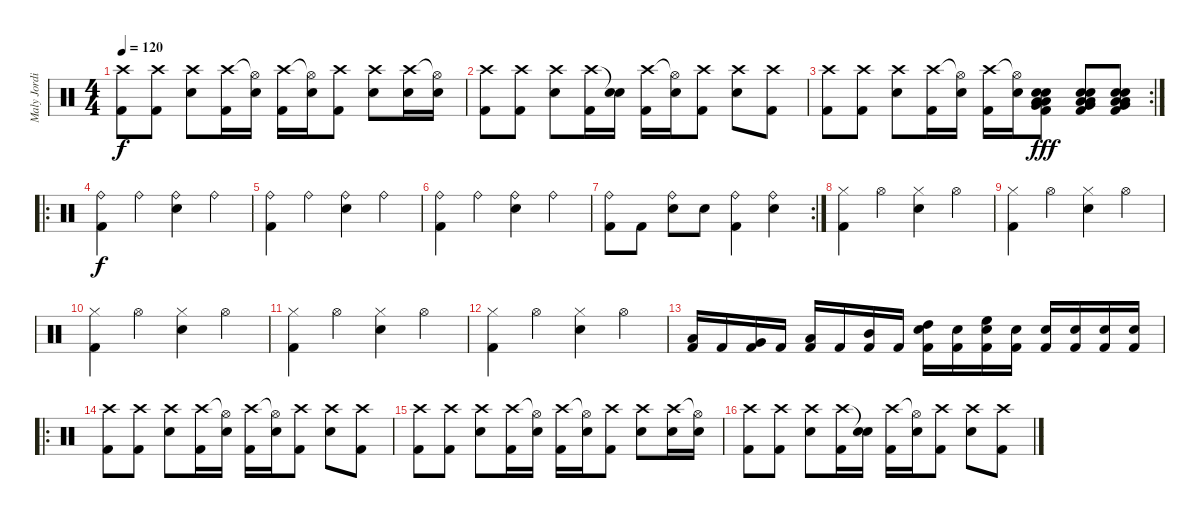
\track ("Maly Jordison   - drums" "Maly Jordi") {instrument percussion}
\staff {score}
\articulation defaults
\ts (4 4)
\tempo 120
\clef neutral
\ks c
("Crash high (hit)" "Kick (hit) 2").8{dy f} ("Crash high (hit)" "Kick (hit) 2").8 ("Crash high (hit)" "Electric Snare (hit)").8 ("Crash high (hit)" "Kick (hit) 2").16 ("Hi-Hat (open)"{t} "Electric Snare (hit)").16 ("Crash high (hit)" "Kick (hit) 2").16 ("Hi-Hat (open)"{t} "Electric Snare (hit)").16 ("Crash high (hit)" "Kick (hit) 2").8 ("Crash high (hit)" "Electric Snare (hit)").8 ("Crash high (hit)" "Electric Snare (hit)").16 ("Hi-Hat (open)"{t} "Electric Snare (hit)").16 |
("Crash high (hit)" "Kick (hit) 2").8 ("Crash high (hit)" "Kick (hit) 2").8 ("Crash high (hit)" "Electric Snare (hit)").8 ("Crash high (hit)" "Kick (hit) 2").16 ("Snare (hit)"{t} "Electric Snare (hit)").16 ("Crash high (hit)" "Kick (hit) 2").16 ("Hi-Hat (open)"{t} "Electric Snare (hit)").16 ("Crash high (hit)" "Kick (hit) 2").8 ("Crash high (hit)" "Electric Snare (hit)").8 ("Crash high (hit)" "Kick (hit) 2").8 |
\rc 2
("Crash high (hit)" "Kick (hit) 2").8 ("Crash high (hit)" "Kick (hit) 2").8 ("Crash high (hit)" "Electric Snare (hit)").8 ("Crash high (hit)" "Kick (hit) 2").16 ("Hi-Hat (open)"{t} "Electric Snare (hit)").16 ("Crash high (hit)" "Kick (hit) 2").16 ("Hi-Hat (open)"{t} "Electric Snare (hit)").16 ("Kick (hit) 2" "Very Low Tom (hit)" "Low Floor Tom (hit)" "Low Floor Tom (hit)" "Electric Snare (hit)" "Electric Snare (hit)").8{dy fff} ("Kick (hit) 2" "Very Low Tom (hit)" "Low Floor Tom (hit)" "Low Floor Tom (hit)" "Electric Snare (hit)" "Electric Snare (hit)").8 ("Kick (hit) 2" "Very Low Tom (hit)" "Low Floor Tom (hit)" "Low Floor Tom (hit)" "Electric Snare (hit)" "Electric Snare (hit)").8 |
\ro
("Ride (bell)" "Kick (hit) 2").4{dy f} "Ride (bell)".4 ("Ride (bell)" "Electric Snare (hit)").4 "Ride (bell)".4 |
("Ride (bell)" "Kick (hit) 2").4 "Ride (bell)".4 ("Ride (bell)" "Electric Snare (hit)").4 "Ride (bell)".4 |
("Ride (bell)" "Kick (hit) 2").4 "Ride (bell)".4 ("Ride (bell)" "Electric Snare (hit)").4 "Ride (bell)".4 |
\rc 2
("Ride (bell)" "Kick (hit) 2").8 "Kick (hit) 2".8 ("Ride (bell)" "Electric Snare (hit)").8 "Electric Snare (hit)".8 ("Ride (bell)" "Kick (hit) 2").4 ("Ride (bell)" "Electric Snare (hit)").4 |
("Hi-Hat (closed)" "Kick (hit) 2").4 "Hi-Hat (open)".4 ("Hi-Hat (closed)" "Electric Snare (hit)").4 "Hi-Hat (open)".4 |
("Hi-Hat (closed)" "Kick (hit) 2").4 "Hi-Hat (open)".4 ("Hi-Hat (closed)" "Electric Snare (hit)").4 "Hi-Hat (open)".4 |
("Hi-Hat (closed)" "Kick (hit) 2").4 "Hi-Hat (open)".4 ("Hi-Hat (closed)" "Electric Snare (hit)").4 "Hi-Hat (open)".4 |
("Hi-Hat (closed)" "Kick (hit) 2").4 "Hi-Hat (open)".4 ("Hi-Hat (closed)" "Electric Snare (hit)").4 "Hi-Hat (open)".4 |
("Hi-Hat (closed)" "Kick (hit) 2").4 "Hi-Hat (open)".4 ("Hi-Hat (closed)" "Electric Snare (hit)").4 "Hi-Hat (open)".4 |
("Low Floor Tom (hit)" "Kick (hit) 2").16 "Kick (hit) 2".16 ("Very Low Tom (hit)" "Kick (hit) 2").16 "Kick (hit) 2".16 ("Low Tom (hit)" "Kick (hit) 2").16 "Kick (hit) 2".16 ("Mid Tom (hit)" "Kick (hit) 2").16 "Kick (hit) 2".16 ("High Tom (hit)" "Electric Snare (hit)" "Kick (hit) 2").16 ("Electric Snare (hit)" "Kick (hit) 2").16 ("High Floor Tom (hit)" "Electric Snare (hit)" "Kick (hit) 2").16 ("Electric Snare (hit)" "Kick (hit) 2").16 ("Electric Snare (hit)" "Kick (hit) 2").16 ("Electric Snare (hit)" "Kick (hit) 2").16 ("Electric Snare (hit)" "Kick (hit) 2").16 ("Electric Snare (hit)" "Kick (hit) 2").16 |
\ro
("Crash high (hit)" "Kick (hit) 2").8 ("Crash high (hit)" "Kick (hit) 2").8 ("Crash high (hit)" "Electric Snare (hit)").8 ("Crash high (hit)" "Kick (hit) 2").16 ("Hi-Hat (open)"{t} "Electric Snare (hit)").16 ("Crash high (hit)" "Kick (hit) 2").16 ("Hi-Hat (open)"{t} "Electric Snare (hit)").16 ("Crash high (hit)" "Kick (hit) 2").8 ("Crash high (hit)" "Electric Snare (hit)").8 ("Crash high (hit)" "Kick (hit) 2").8 |
("Crash high (hit)" "Kick (hit) 2").8 ("Crash high (hit)" "Kick (hit) 2").8 ("Crash high (hit)" "Electric Snare (hit)").8 ("Crash high (hit)" "Kick (hit) 2").16 ("Hi-Hat (open)"{t} "Electric Snare (hit)").16 ("Crash high (hit)" "Kick (hit) 2").16 ("Hi-Hat (open)"{t} "Electric Snare (hit)").16 ("Crash high (hit)" "Kick (hit) 2").8 ("Crash high (hit)" "Electric Snare (hit)").8 ("Crash high (hit)" "Electric Snare (hit)").16 ("Hi-Hat (open)"{t} "Electric Snare (hit)").16 |
("Crash high (hit)" "Kick (hit) 2").8 ("Crash high (hit)" "Kick (hit) 2").8 ("Crash high (hit)" "Electric Snare (hit)").8 ("Crash high (hit)" "Kick (hit) 2").16 ("Snare (hit)"{t} "Electric Snare (hit)").16 ("Crash high (hit)" "Kick (hit) 2").16 ("Hi-Hat (open)"{t} "Electric Snare (hit)").16 ("Crash high (hit)" "Kick (hit) 2").8 ("Crash high (hit)" "Electric Snare (hit)").8 ("Crash high (hit)" "Kick (hit) 2").8
